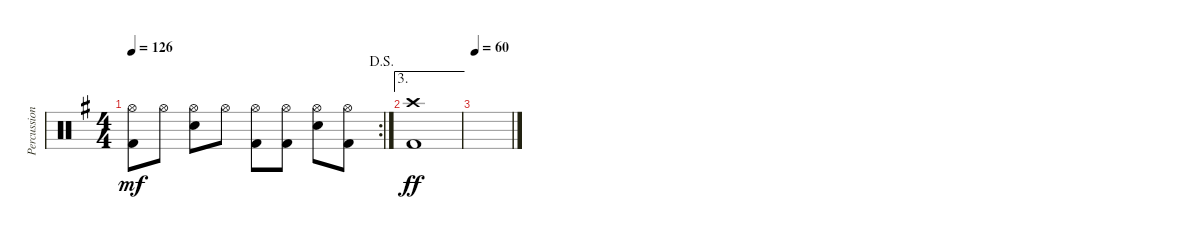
\track ("Percussion" "Percussion") {instrument percussion}
\staff {score}
\articulation defaults
\rc 2
\ts (4 4)
\jump dalsegno
\tempo 126
\clef neutral
\ks g
("Hi-Hat (open)" "Kick (hit) 2").8{dy mf} "Hi-Hat (open)".8 ("Hi-Hat (open)" "Snare (hit) 2").8 "Hi-Hat (open)".8 ("Hi-Hat (open)" "Kick (hit) 2").8 ("Hi-Hat (open)" "Kick (hit) 2").8 ("Hi-Hat (open)" "Snare (hit) 2").8 ("Hi-Hat (open)" "Kick (hit) 2").8 |
\ae 3
("Crash high (hit)" "Kick (hit) 2").1{dy ff} |
\tempo 60
